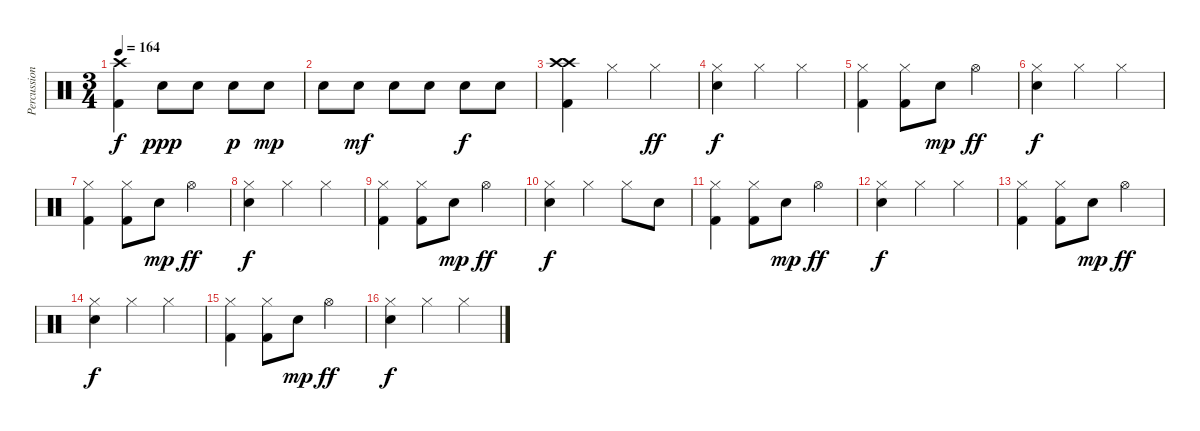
\track ("Percussion" "Percussion") {instrument percussion}
\staff {score}
\articulation defaults
\ts (3 4)
\tempo 164
\clef neutral
\ks c
("Crash high (hit)" "Kick (hit) 2").4{dy f} "Snare (hit) 2".8{dy ppp} "Snare (hit) 2".8 "Snare (hit) 2".8{dy p} "Snare (hit) 2".8{dy mp} |
"Snare (hit) 2".8 "Snare (hit) 2".8{dy mf} "Snare (hit) 2".8 "Snare (hit) 2".8 "Snare (hit) 2".8{dy f} "Snare (hit) 2".8 |
("Crash high (hit)" "Crash high (hit)" "Kick (hit) 2").4 "Hi-Hat (closed)".4 "Hi-Hat (closed)".4{dy ff} |
("Hi-Hat (closed)" "Snare (hit) 2").4{dy f} "Hi-Hat (closed)".4 "Hi-Hat (closed)".4 |
("Hi-Hat (closed)" "Kick (hit) 2").4 ("Hi-Hat (closed)" "Kick (hit) 2").8 "Snare (hit) 2".8{dy mp} "Hi-Hat (open)".4{dy ff} |
("Hi-Hat (closed)" "Snare (hit) 2").4{dy f} "Hi-Hat (closed)".4 "Hi-Hat (closed)".4 |
("Hi-Hat (closed)" "Kick (hit) 2").4 ("Hi-Hat (closed)" "Kick (hit) 2").8 "Snare (hit) 2".8{dy mp} "Hi-Hat (open)".4{dy ff} |
("Hi-Hat (closed)" "Snare (hit) 2").4{dy f} "Hi-Hat (closed)".4 "Hi-Hat (closed)".4 |
("Hi-Hat (closed)" "Kick (hit) 2").4 ("Hi-Hat (closed)" "Kick (hit) 2").8 "Snare (hit) 2".8{dy mp} "Hi-Hat (open)".4{dy ff} |
("Hi-Hat (closed)" "Snare (hit) 2").4{dy f} "Hi-Hat (closed)".4 "Hi-Hat (closed)".8 "Snare (hit) 2".8 |
("Hi-Hat (closed)" "Kick (hit) 2").4 ("Hi-Hat (closed)" "Kick (hit) 2").8 "Snare (hit) 2".8{dy mp} "Hi-Hat (open)".4{dy ff} |
("Hi-Hat (closed)" "Snare (hit) 2").4{dy f} "Hi-Hat (closed)".4 "Hi-Hat (closed)".4 |
("Hi-Hat (closed)" "Kick (hit) 2").4 ("Hi-Hat (closed)" "Kick (hit) 2").8 "Snare (hit) 2".8{dy mp} "Hi-Hat (open)".4{dy ff} |
("Hi-Hat (closed)" "Snare (hit) 2").4{dy f} "Hi-Hat (closed)".4 "Hi-Hat (closed)".4 |
("Hi-Hat (closed)" "Kick (hit) 2").4 ("Hi-Hat (closed)" "Kick (hit) 2").8 "Snare (hit) 2".8{dy mp} "Hi-Hat (open)".4{dy ff} |
("Hi-Hat (closed)" "Snare (hit) 2").4{dy f} "Hi-Hat (closed)".4 "Hi-Hat (closed)".4
